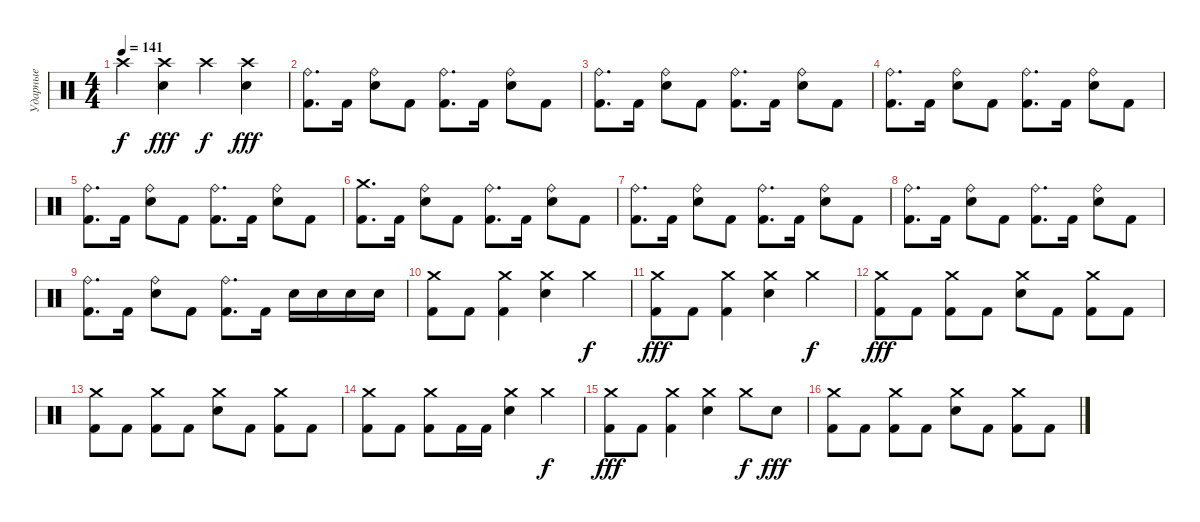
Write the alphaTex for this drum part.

\track ("Ударные" "Ударные") {instrument percussion}
\staff {score}
\articulation defaults
\ts (4 4)
\tempo 141
\clef neutral
\ks c "Crash high (hit)".4{dy f}
("Crash high (hit)" "Electric Snare (hit)").4{dy fff} "Crash high (hit)".4{dy f} ("Crash high (hit)" "Electric Snare (hit)").4{dy fff} |
("Ride (bell)" "Kick (hit) 2").8{d} "Kick (hit) 2".16 ("Ride (bell)" "Electric Snare (hit)").8 "Kick (hit) 2".8 ("Ride (bell)" "Kick (hit) 2").8{d} "Kick (hit) 2".16 ("Ride (bell)" "Electric Snare (hit)").8 "Kick (hit) 2".8 |
("Ride (bell)" "Kick (hit) 2").8{d} "Kick (hit) 2".16 ("Ride (bell)" "Electric Snare (hit)").8 "Kick (hit) 2".8 ("Ride (bell)" "Kick (hit) 2").8{d} "Kick (hit) 2".16 ("Ride (bell)" "Electric Snare (hit)").8 "Kick (hit) 2".8 |
("Ride (bell)" "Kick (hit) 2").8{d} "Kick (hit) 2".16 ("Ride (bell)" "Electric Snare (hit)").8 "Kick (hit) 2".8 ("Ride (bell)" "Kick (hit) 2").8{d} "Kick (hit) 2".16 ("Ride (bell)" "Electric Snare (hit)").8 "Kick (hit) 2".8 |
("Ride (bell)" "Kick (hit) 2").8{d} "Kick (hit) 2".16 ("Ride (bell)" "Electric Snare (hit)").8 "Kick (hit) 2".8 ("Ride (bell)" "Kick (hit) 2").8{d} "Kick (hit) 2".16 ("Ride (bell)" "Electric Snare (hit)").8 "Kick (hit) 2".8 |
("Crash medium (hit)" "Kick (hit) 2").8{d} "Kick (hit) 2".16 ("Ride (bell)" "Electric Snare (hit)").8 "Kick (hit) 2".8 ("Ride (bell)" "Kick (hit) 2").8{d} "Kick (hit) 2".16 ("Ride (bell)" "Electric Snare (hit)").8 "Kick (hit) 2".8 |
("Ride (bell)" "Kick (hit) 2").8{d} "Kick (hit) 2".16 ("Ride (bell)" "Electric Snare (hit)").8 "Kick (hit) 2".8 ("Ride (bell)" "Kick (hit) 2").8{d} "Kick (hit) 2".16 ("Ride (bell)" "Electric Snare (hit)").8 "Kick (hit) 2".8 |
("Ride (bell)" "Kick (hit) 2").8{d} "Kick (hit) 2".16 ("Ride (bell)" "Electric Snare (hit)").8 "Kick (hit) 2".8 ("Ride (bell)" "Kick (hit) 2").8{d} "Kick (hit) 2".16 ("Ride (bell)" "Electric Snare (hit)").8 "Kick (hit) 2".8 |
("Ride (bell)" "Kick (hit) 2").8{d} "Kick (hit) 2".16 ("Ride (bell)" "Electric Snare (hit)").8 "Kick (hit) 2".8 ("Ride (bell)" "Kick (hit) 2").8{d} "Kick (hit) 2".16 "Electric Snare (hit)".16 "Electric Snare (hit)".16 "Electric Snare (hit)".16 "Electric Snare (hit)".16 |
("Crash medium (hit)" "Kick (hit) 2").8 "Kick (hit) 2".8 ("Crash medium (hit)" "Kick (hit) 2").4 ("Crash medium (hit)" "Electric Snare (hit)").4 "Crash medium (hit)".4{dy f} |
("Crash medium (hit)" "Kick (hit) 2").8{dy fff} "Kick (hit) 2".8 ("Crash medium (hit)" "Kick (hit) 2").4 ("Crash medium (hit)" "Electric Snare (hit)").4 "Crash medium (hit)".4{dy f} |
("Crash medium (hit)" "Kick (hit) 2").8{dy fff} "Kick (hit) 2".8 ("Crash medium (hit)" "Kick (hit) 2").8 "Kick (hit) 2".8 ("Crash medium (hit)" "Electric Snare (hit)").8 "Kick (hit) 2".8 ("Crash medium (hit)" "Kick (hit) 2").8 "Kick (hit) 2".8 |
("Crash medium (hit)" "Kick (hit) 2").8 "Kick (hit) 2".8 ("Crash medium (hit)" "Kick (hit) 2").8 "Kick (hit) 2".8 ("Crash medium (hit)" "Electric Snare (hit)").8 "Kick (hit) 2".8 ("Crash medium (hit)" "Kick (hit) 2").8 "Kick (hit) 2".8 |
("Crash medium (hit)" "Kick (hit) 2").8 "Kick (hit) 2".8 ("Crash medium (hit)" "Kick (hit) 2").8 "Kick (hit) 2".16 "Kick (hit) 2".16 ("Crash medium (hit)" "Electric Snare (hit)").4 "Crash medium (hit)".4{dy f} |
("Crash medium (hit)" "Kick (hit) 2").8{dy fff} "Kick (hit) 2".8 ("Crash medium (hit)" "Kick (hit) 2").4 ("Crash medium (hit)" "Electric Snare (hit)").4 "Crash medium (hit)".8{dy f} "Electric Snare (hit)".8{dy fff} |
("Crash medium (hit)" "Kick (hit) 2").8 "Kick (hit) 2".8 ("Crash medium (hit)" "Kick (hit) 2").8 "Kick (hit) 2".8 ("Crash medium (hit)" "Electric Snare (hit)").8 "Kick (hit) 2".8 ("Crash medium (hit)" "Kick (hit) 2").8 "Kick (hit) 2".8
